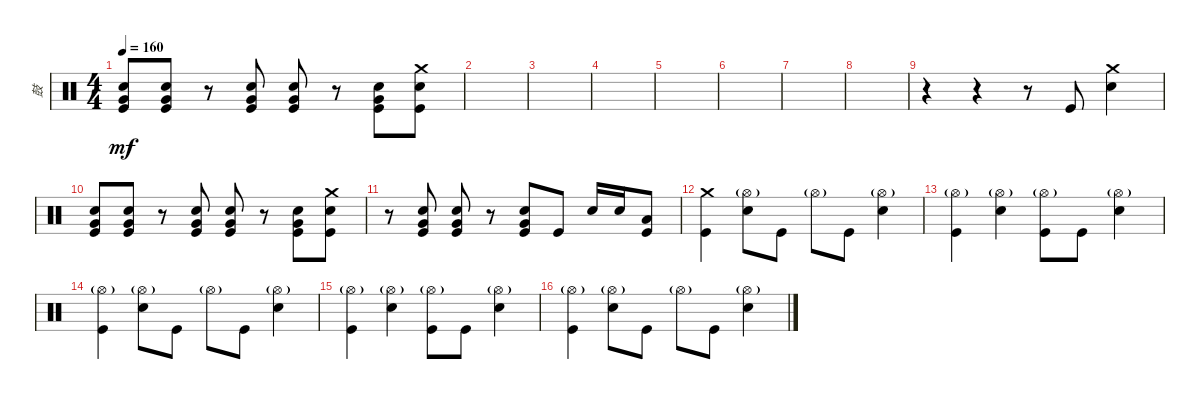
\track ("鼓" "鼓") {instrument percussion}
\staff {score}
\articulation defaults
\ts (4 4)
\tempo 160
\clef neutral
\ks c
("Kick (hit)" "Very Low Tom (hit)" "Snare (hit) 2").8{dy mf} ("Kick (hit)" "Very Low Tom (hit)" "Snare (hit) 2").8 r.8 ("Kick (hit)" "Very Low Tom (hit)" "Snare (hit) 2").8 ("Kick (hit)" "Very Low Tom (hit)" "Snare (hit) 2").8 r.8 ("Kick (hit)" "Very Low Tom (hit)" "Snare (hit) 2").8 ("Kick (hit)" "Snare (hit) 2" "Crash medium (hit)").8 |
|
|
|
|
|
|
|
r.4 r.4 r.8 "Kick (hit)".8 ("Snare (hit) 2" "Crash medium (hit)").4 |
("Kick (hit)" "Very Low Tom (hit)" "Snare (hit) 2").8 ("Kick (hit)" "Very Low Tom (hit)" "Snare (hit) 2").8 r.8 ("Kick (hit)" "Very Low Tom (hit)" "Snare (hit) 2").8 ("Kick (hit)" "Very Low Tom (hit)" "Snare (hit) 2").8 r.8 ("Kick (hit)" "Very Low Tom (hit)" "Snare (hit) 2").8 ("Kick (hit)" "Snare (hit) 2" "Crash medium (hit)").8 |
r.8 ("Kick (hit)" "Very Low Tom (hit)" "Snare (hit) 2").8 ("Kick (hit)" "Very Low Tom (hit)" "Snare (hit) 2").8 r.8 ("Kick (hit)" "Very Low Tom (hit)" "Snare (hit) 2").8 "Kick (hit)".8 "Snare (hit) 2".16 "Snare (hit) 2".16 ("Low Tom (hit)" "Kick (hit)").8 |
("Kick (hit)" "Crash medium (hit)").4 ("Snare (hit) 2" "Hi-Hat (open)"{g}).8 "Kick (hit)".8 "Hi-Hat (open)"{g}.8 "Kick (hit)".8 ("Snare (hit) 2" "Hi-Hat (open)"{g}).4 |
("Kick (hit)" "Hi-Hat (open)"{g}).4 ("Hi-Hat (open)"{g} "Snare (hit) 2").4 ("Kick (hit)" "Hi-Hat (open)"{g}).8 "Kick (hit)".8 ("Snare (hit) 2" "Hi-Hat (open)"{g}).4 |
("Kick (hit)" "Hi-Hat (open)"{g}).4 ("Snare (hit) 2" "Hi-Hat (open)"{g}).8 "Kick (hit)".8 "Hi-Hat (open)"{g}.8 "Kick (hit)".8 ("Snare (hit) 2" "Hi-Hat (open)"{g}).4 |
("Kick (hit)" "Hi-Hat (open)"{g}).4 ("Hi-Hat (open)"{g} "Snare (hit) 2").4 ("Kick (hit)" "Hi-Hat (open)"{g}).8 "Kick (hit)".8 ("Snare (hit) 2" "Hi-Hat (open)"{g}).4 |
("Kick (hit)" "Hi-Hat (open)"{g}).4 ("Snare (hit) 2" "Hi-Hat (open)"{g}).8 "Kick (hit)".8 "Hi-Hat (open)"{g}.8 "Kick (hit)".8 ("Snare (hit) 2" "Hi-Hat (open)"{g}).4
